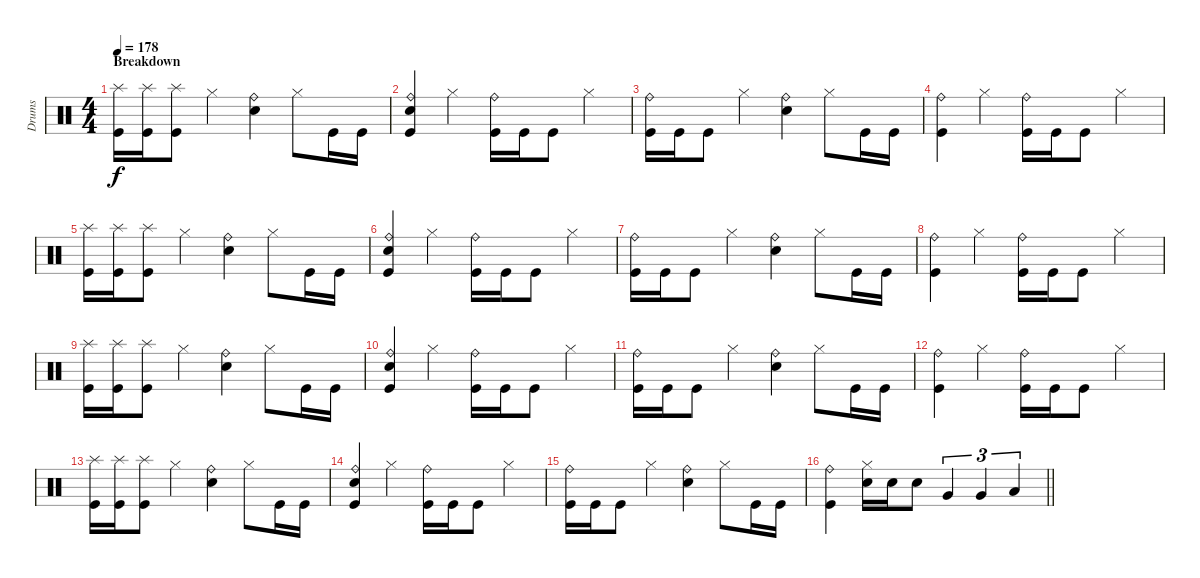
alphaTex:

\track ("Drums" "Drums") {instrument percussion}
\staff {score}
\articulation defaults
\ts (4 4)
\section ("" "Breakdown")
\tempo 178
\clef neutral
\ks c
("Splash (hit)" "Kick (hit)").16{dy f} ("Splash (hit)" "Kick (hit)").16 ("Splash (hit)" "Kick (hit)").8 "Hi-Hat (closed)".4 ("Ride (bell)" "Snare (hit) 2").4 "Hi-Hat (closed)".8 "Kick (hit)".16 "Kick (hit)".16 |
("Ride (bell)" "Snare (hit) 2" "Kick (hit)").4 "Hi-Hat (closed)".4 ("Ride (bell)" "Kick (hit)").16 "Kick (hit)".16 "Kick (hit)".8 "Hi-Hat (closed)".4 |
("Ride (bell)" "Kick (hit)").16 "Kick (hit)".16 "Kick (hit)".8 "Hi-Hat (closed)".4 ("Ride (bell)" "Snare (hit) 2").4 "Hi-Hat (closed)".8 "Kick (hit)".16 "Kick (hit)".16 |
("Ride (bell)" "Kick (hit)").4 "Hi-Hat (closed)".4 ("Ride (bell)" "Kick (hit)").16 "Kick (hit)".16 "Kick (hit)".8 "Hi-Hat (closed)".4 |
("Splash (hit)" "Kick (hit)").16 ("Splash (hit)" "Kick (hit)").16 ("Splash (hit)" "Kick (hit)").8 "Hi-Hat (closed)".4 ("Ride (bell)" "Snare (hit) 2").4 "Hi-Hat (closed)".8 "Kick (hit)".16 "Kick (hit)".16 |
("Ride (bell)" "Snare (hit) 2" "Kick (hit)").4 "Hi-Hat (closed)".4 ("Ride (bell)" "Kick (hit)").16 "Kick (hit)".16 "Kick (hit)".8 "Hi-Hat (closed)".4 |
("Ride (bell)" "Kick (hit)").16 "Kick (hit)".16 "Kick (hit)".8 "Hi-Hat (closed)".4 ("Ride (bell)" "Snare (hit) 2").4 "Hi-Hat (closed)".8 "Kick (hit)".16 "Kick (hit)".16 |
("Ride (bell)" "Kick (hit)").4 "Hi-Hat (closed)".4 ("Ride (bell)" "Kick (hit)").16 "Kick (hit)".16 "Kick (hit)".8 "Hi-Hat (closed)".4 |
("Splash (hit)" "Kick (hit)").16 ("Splash (hit)" "Kick (hit)").16 ("Splash (hit)" "Kick (hit)").8 "Hi-Hat (closed)".4 ("Ride (bell)" "Snare (hit) 2").4 "Hi-Hat (closed)".8 "Kick (hit)".16 "Kick (hit)".16 |
("Ride (bell)" "Snare (hit) 2" "Kick (hit)").4 "Hi-Hat (closed)".4 ("Ride (bell)" "Kick (hit)").16 "Kick (hit)".16 "Kick (hit)".8 "Hi-Hat (closed)".4 |
("Ride (bell)" "Kick (hit)").16 "Kick (hit)".16 "Kick (hit)".8 "Hi-Hat (closed)".4 ("Ride (bell)" "Snare (hit) 2").4 "Hi-Hat (closed)".8 "Kick (hit)".16 "Kick (hit)".16 |
("Ride (bell)" "Kick (hit)").4 "Hi-Hat (closed)".4 ("Ride (bell)" "Kick (hit)").16 "Kick (hit)".16 "Kick (hit)".8 "Hi-Hat (closed)".4 |
("Splash (hit)" "Kick (hit)").16 ("Splash (hit)" "Kick (hit)").16 ("Splash (hit)" "Kick (hit)").8 "Hi-Hat (closed)".4 ("Ride (bell)" "Snare (hit) 2").4 "Hi-Hat (closed)".8 "Kick (hit)".16 "Kick (hit)".16 |
("Ride (bell)" "Snare (hit) 2" "Kick (hit)").4 "Hi-Hat (closed)".4 ("Ride (bell)" "Kick (hit)").16 "Kick (hit)".16 "Kick (hit)".8 "Hi-Hat (closed)".4 |
("Ride (bell)" "Kick (hit)").16 "Kick (hit)".16 "Kick (hit)".8 "Hi-Hat (closed)".4 ("Ride (bell)" "Snare (hit) 2").4 "Hi-Hat (closed)".8 "Kick (hit)".16 "Kick (hit)".16 |
\barLineRight lightlight
("Ride (bell)" "Kick (hit)").4 ("Hi-Hat (closed)" "Snare (hit) 2").16 "Snare (hit) 2".16 "Snare (hit) 2".8 "Very Low Tom (hit)".4{tu (3 2)} "Very Low Tom (hit)".4{tu (3 2)} "Low Floor Tom (hit)".4{tu (3 2)}
